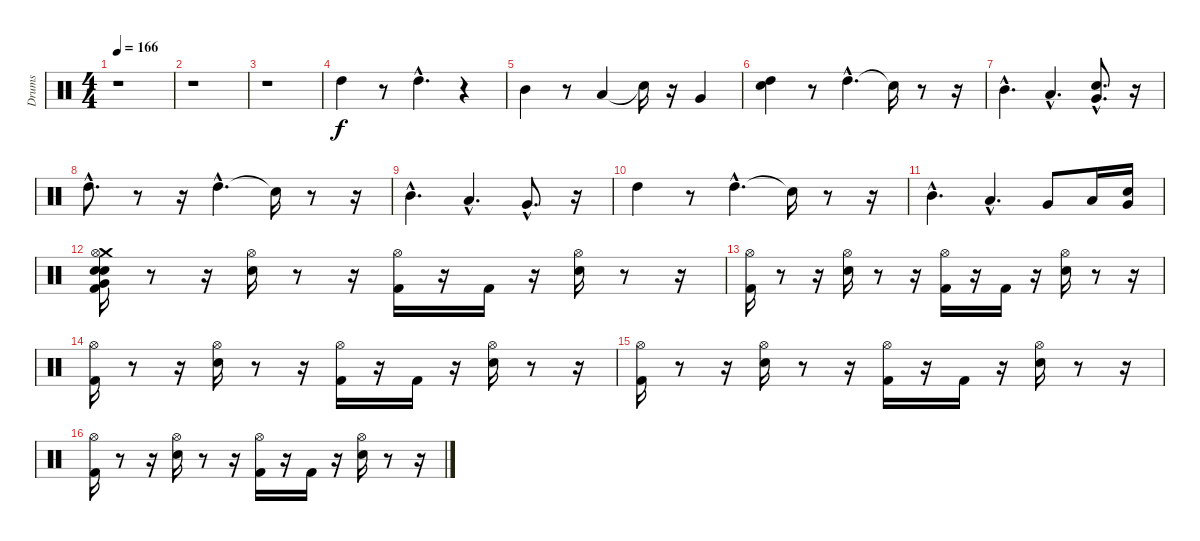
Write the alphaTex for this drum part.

\track ("Drums" "Drums") {instrument percussion}
\staff {score}
\articulation defaults
\ts (4 4)
\tempo 166
\clef neutral
\ks c
r.1{dy f} |
r.1 |
r.1 |
"High Tom (hit)".4 r.8 "High Tom (hit)"{hac}.4{d} r.4 |
"Mid Tom (hit)".4 r.8 "Low Tom (hit)".4 "Snare (hit)"{t}.16 r.16 "Very Low Tom (hit)".4 |
("Snare (hit)" "High Tom (hit)").4 r.8 "High Tom (hit)"{hac}.4{d} "Snare (hit)"{t}.16 r.8 r.16 |
"Mid Tom (hit)"{hac}.4{d} "Low Tom (hit)"{hac}.4{d} ("Snare (hit)"{hac} "Very Low Tom (hit)"{hac}).8{d} r.16 |
"High Tom (hit)"{hac}.8{d} r.8 r.16 "High Tom (hit)"{hac}.4{d} "Snare (hit)"{t}.16 r.8 r.16 |
"Mid Tom (hit)"{hac}.4{d} "Low Tom (hit)"{hac}.4{d} "Very Low Tom (hit)"{hac}.8{d} r.16 |
"High Tom (hit)".4 r.8 "High Tom (hit)"{hac}.4{d} "Snare (hit)"{t}.16 r.8 r.16 |
"Mid Tom (hit)"{hac}.4{d} "Low Tom (hit)"{hac}.4{d} "Very Low Tom (hit)".8 "Low Tom (hit)".16 ("Snare (hit)" "Very Low Tom (hit)").16 |
("Snare (hit)" "Electric Snare (hit)" "Crash medium (hit)" "Kick (hit) 2" "Hi-Hat (open)" "Very Low Tom (hit)").16 r.8 r.16 ("Hi-Hat (open)" "Snare (hit) 2").16 r.8 r.16 ("Hi-Hat (open)" "Kick (hit) 2").16 r.16 "Kick (hit) 2".16 r.16 ("Hi-Hat (open)" "Snare (hit) 2").16 r.8 r.16 |
("Kick (hit) 2" "Hi-Hat (open)").16 r.8 r.16 ("Hi-Hat (open)" "Snare (hit) 2").16 r.8 r.16 ("Hi-Hat (open)" "Kick (hit) 2").16 r.16 "Kick (hit) 2".16 r.16 ("Hi-Hat (open)" "Snare (hit) 2").16 r.8 r.16 |
("Kick (hit) 2" "Hi-Hat (open)").16 r.8 r.16 ("Hi-Hat (open)" "Snare (hit) 2").16 r.8 r.16 ("Hi-Hat (open)" "Kick (hit) 2").16 r.16 "Kick (hit) 2".16 r.16 ("Hi-Hat (open)" "Snare (hit) 2").16 r.8 r.16 |
("Kick (hit) 2" "Hi-Hat (open)").16 r.8 r.16 ("Hi-Hat (open)" "Snare (hit) 2").16 r.8 r.16 ("Hi-Hat (open)" "Kick (hit) 2").16 r.16 "Kick (hit) 2".16 r.16 ("Hi-Hat (open)" "Snare (hit) 2").16 r.8 r.16 |
("Kick (hit) 2" "Hi-Hat (open)").16 r.8 r.16 ("Hi-Hat (open)" "Snare (hit) 2").16 r.8 r.16 ("Hi-Hat (open)" "Kick (hit) 2").16 r.16 "Kick (hit) 2".16 r.16 ("Hi-Hat (open)" "Snare (hit) 2").16 r.8 r.16
